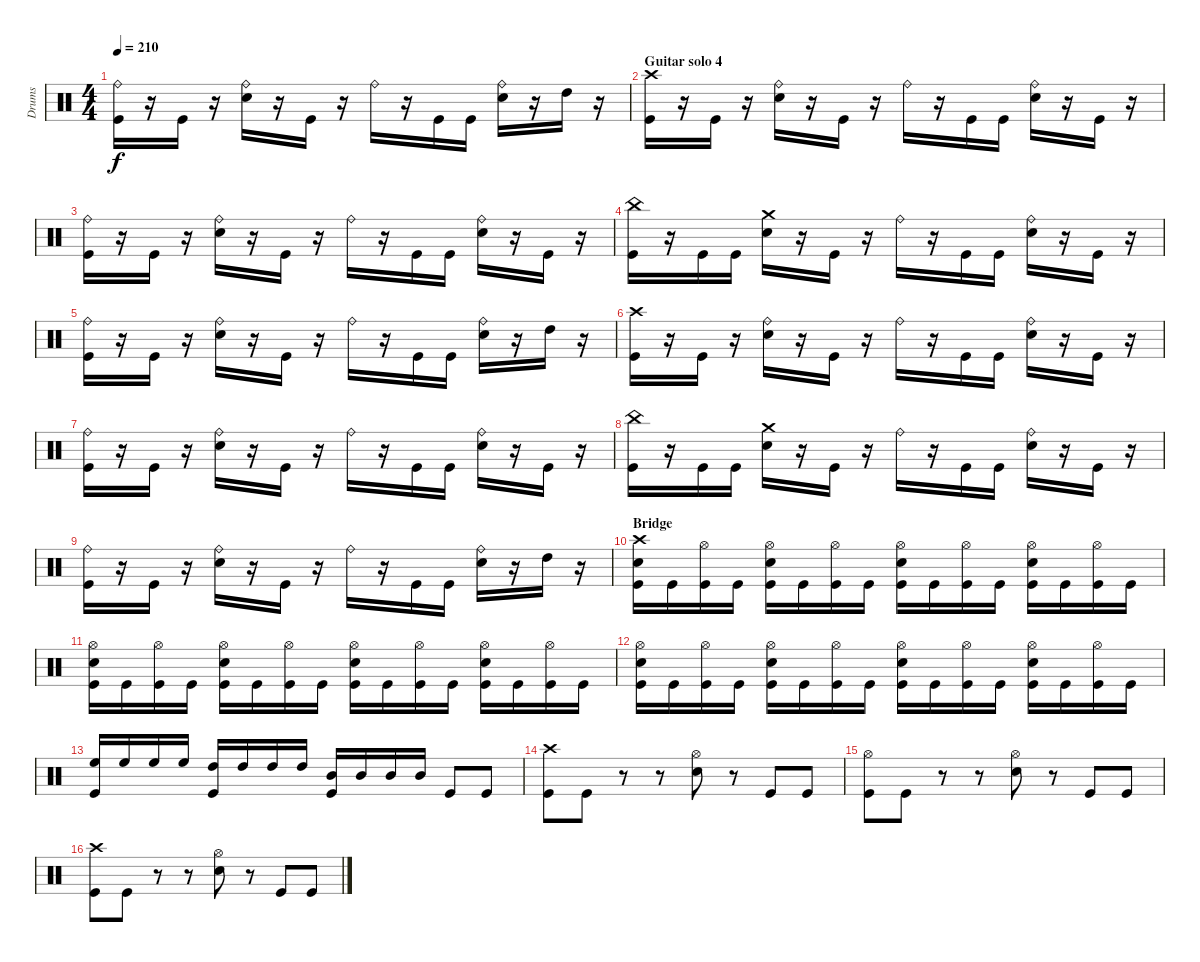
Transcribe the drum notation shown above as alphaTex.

\track ("Drums" "Drums") {instrument percussion}
\staff {score}
\articulation defaults
\ts (4 4)
\tempo 210
\clef neutral
\ks c
("Ride (bell)" "Kick (hit)").16{dy f} r.16 "Kick (hit)".16 r.16 ("Ride (bell)" "Electric Snare (hit)").16 r.16 "Kick (hit)".16 r.16 "Ride (bell)".16 r.16 "Kick (hit)".16 "Kick (hit)".16 ("Ride (bell)" "Electric Snare (hit)").16 r.16 "High Tom (hit)".16 r.16 |
\section ("" "Guitar solo 4")
("Crash high (hit)" "Kick (hit)").16 r.16 "Kick (hit)".16 r.16 ("Ride (bell)" "Electric Snare (hit)").16 r.16 "Kick (hit)".16 r.16 "Ride (bell)".16 r.16 "Kick (hit)".16 "Kick (hit)".16 ("Ride (bell)" "Electric Snare (hit)").16 r.16 "Kick (hit)".16 r.16 |
("Ride (bell)" "Kick (hit)").16 r.16 "Kick (hit)".16 r.16 ("Ride (bell)" "Electric Snare (hit)").16 r.16 "Kick (hit)".16 r.16 "Ride (bell)".16 r.16 "Kick (hit)".16 "Kick (hit)".16 ("Ride (bell)" "Electric Snare (hit)").16 r.16 "Kick (hit)".16 r.16 |
("China (hit)" "Kick (hit)").16 r.16 "Kick (hit)".16 "Kick (hit)".16 ("Crash medium (hit)" "Electric Snare (hit)").16 r.16 "Kick (hit)".16 r.16 "Ride (bell)".16 r.16 "Kick (hit)".16 "Kick (hit)".16 ("Ride (bell)" "Electric Snare (hit)").16 r.16 "Kick (hit)".16 r.16 |
("Ride (bell)" "Kick (hit)").16 r.16 "Kick (hit)".16 r.16 ("Ride (bell)" "Electric Snare (hit)").16 r.16 "Kick (hit)".16 r.16 "Ride (bell)".16 r.16 "Kick (hit)".16 "Kick (hit)".16 ("Ride (bell)" "Electric Snare (hit)").16 r.16 "High Tom (hit)".16 r.16 |
("Crash high (hit)" "Kick (hit)").16 r.16 "Kick (hit)".16 r.16 ("Ride (bell)" "Electric Snare (hit)").16 r.16 "Kick (hit)".16 r.16 "Ride (bell)".16 r.16 "Kick (hit)".16 "Kick (hit)".16 ("Ride (bell)" "Electric Snare (hit)").16 r.16 "Kick (hit)".16 r.16 |
("Ride (bell)" "Kick (hit)").16 r.16 "Kick (hit)".16 r.16 ("Ride (bell)" "Electric Snare (hit)").16 r.16 "Kick (hit)".16 r.16 "Ride (bell)".16 r.16 "Kick (hit)".16 "Kick (hit)".16 ("Ride (bell)" "Electric Snare (hit)").16 r.16 "Kick (hit)".16 r.16 |
("China (hit)" "Kick (hit)").16 r.16 "Kick (hit)".16 "Kick (hit)".16 ("Crash medium (hit)" "Electric Snare (hit)").16 r.16 "Kick (hit)".16 r.16 "Ride (bell)".16 r.16 "Kick (hit)".16 "Kick (hit)".16 ("Ride (bell)" "Electric Snare (hit)").16 r.16 "Kick (hit)".16 r.16 |
("Ride (bell)" "Kick (hit)").16 r.16 "Kick (hit)".16 r.16 ("Ride (bell)" "Electric Snare (hit)").16 r.16 "Kick (hit)".16 r.16 "Ride (bell)".16 r.16 "Kick (hit)".16 "Kick (hit)".16 ("Ride (bell)" "Electric Snare (hit)").16 r.16 "High Tom (hit)".16 r.16 |
\section ("" "Bridge")
("Crash high (hit)" "Electric Snare (hit)" "Kick (hit)").16 "Kick (hit)".16 ("Hi-Hat (open)" "Kick (hit)").16 "Kick (hit)".16 ("Hi-Hat (open)" "Electric Snare (hit)" "Kick (hit)").16 "Kick (hit)".16 ("Hi-Hat (open)" "Kick (hit)").16 "Kick (hit)".16 ("Hi-Hat (open)" "Electric Snare (hit)" "Kick (hit)").16 "Kick (hit)".16 ("Hi-Hat (open)" "Kick (hit)").16 "Kick (hit)".16 ("Hi-Hat (open)" "Electric Snare (hit)" "Kick (hit)").16 "Kick (hit)".16 ("Hi-Hat (open)" "Kick (hit)").16 "Kick (hit)".16 |
("Hi-Hat (open)" "Electric Snare (hit)" "Kick (hit)").16 "Kick (hit)".16 ("Hi-Hat (open)" "Kick (hit)").16 "Kick (hit)".16 ("Hi-Hat (open)" "Electric Snare (hit)" "Kick (hit)").16 "Kick (hit)".16 ("Hi-Hat (open)" "Kick (hit)").16 "Kick (hit)".16 ("Hi-Hat (open)" "Electric Snare (hit)" "Kick (hit)").16 "Kick (hit)".16 ("Hi-Hat (open)" "Kick (hit)").16 "Kick (hit)".16 ("Hi-Hat (open)" "Electric Snare (hit)" "Kick (hit)").16 "Kick (hit)".16 ("Hi-Hat (open)" "Kick (hit)").16 "Kick (hit)".16 |
("Hi-Hat (open)" "Electric Snare (hit)" "Kick (hit)").16 "Kick (hit)".16 ("Hi-Hat (open)" "Kick (hit)").16 "Kick (hit)".16 ("Hi-Hat (open)" "Electric Snare (hit)" "Kick (hit)").16 "Kick (hit)".16 ("Hi-Hat (open)" "Kick (hit)").16 "Kick (hit)".16 ("Hi-Hat (open)" "Electric Snare (hit)" "Kick (hit)").16 "Kick (hit)".16 ("Hi-Hat (open)" "Kick (hit)").16 "Kick (hit)".16 ("Hi-Hat (open)" "Electric Snare (hit)" "Kick (hit)").16 "Kick (hit)".16 ("Hi-Hat (open)" "Kick (hit)").16 "Kick (hit)".16 |
("High Floor Tom (hit)" "Kick (hit)").16 "High Floor Tom (hit)".16 "High Floor Tom (hit)".16 "High Floor Tom (hit)".16 ("High Tom (hit)" "Kick (hit)").16 "High Tom (hit)".16 "High Tom (hit)".16 "High Tom (hit)".16 ("Mid Tom (hit)" "Kick (hit)").16 "Mid Tom (hit)".16 "Mid Tom (hit)".16 "Mid Tom (hit)".16 "Kick (hit)".8 "Kick (hit)".8 |
("Crash high (hit)" "Kick (hit)").8 "Kick (hit)".8 r.8 r.8 ("Hi-Hat (open)" "Electric Snare (hit)").8 r.8 "Kick (hit)".8 "Kick (hit)".8 |
("Hi-Hat (open)" "Kick (hit)").8 "Kick (hit)".8 r.8 r.8 ("Hi-Hat (open)" "Electric Snare (hit)").8 r.8 "Kick (hit)".8 "Kick (hit)".8 |
("Crash high (hit)" "Kick (hit)").8 "Kick (hit)".8 r.8 r.8 ("Hi-Hat (open)" "Electric Snare (hit)").8 r.8 "Kick (hit)".8 "Kick (hit)".8
